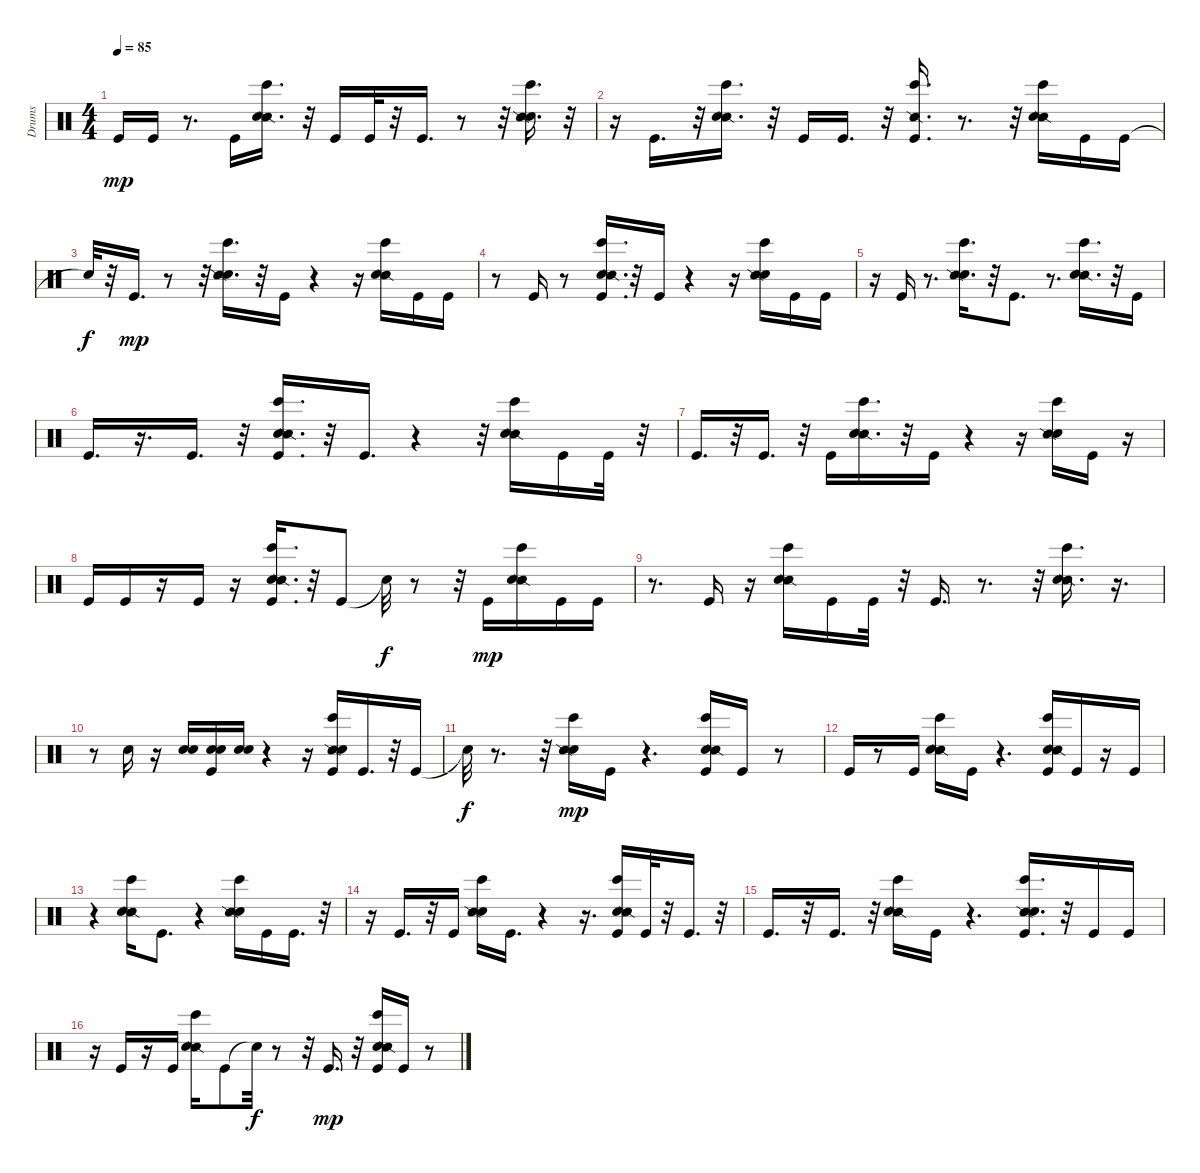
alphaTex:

\track ("Drums" "Drums") {instrument percussion}
\staff {score}
\articulation defaults
\ts (4 4)
\tempo 85
\clef neutral
\ks c "Kick (hit)".16{dy mp} "Kick (hit)".16
r.8{d} "Kick (hit)".16 ("Bongo High (hit)" "Snare (side stick) 2" "Electric Snare (hit)").16{d} r.32 "Kick (hit)".16 "Kick (hit)".32 r.32 "Kick (hit)".16{d} r.8 r.32 ("Bongo High (hit)" "Electric Snare (hit)" "Snare (side stick) 2").16{d} r.32 |
r.16 "Kick (hit)".16{d} r.32 ("Snare (side stick) 2" "Electric Snare (hit)" "Bongo High (hit)").16{d} r.32 "Kick (hit)".16 "Kick (hit)".16{d} r.32 ("Kick (hit)" "Snare (side stick) 2" "Bongo High (hit)").16{d} r.8{d} r.32 ("Bongo High (hit)" "Snare (side stick) 2" "Electric Snare (hit)").16 "Kick (hit)".16 "Kick (hit)".16 |
"Snare (hit)"{t}.32{dy f} r.32 "Kick (hit)".16{d dy mp} r.8 r.32 ("Bongo High (hit)" "Electric Snare (hit)" "Snare (side stick) 2").16{d} r.32 "Kick (hit)".16 r.4 r.16 ("Bongo High (hit)" "Snare (side stick) 2" "Electric Snare (hit)").16 "Kick (hit)".16 "Kick (hit)".16 |
r.8 "Kick (hit)".16 r.8 ("Kick (hit)" "Electric Snare (hit)" "Snare (side stick) 2" "Bongo High (hit)").16{d} r.32 "Kick (hit)".16 r.4 r.16 ("Bongo High (hit)" "Electric Snare (hit)" "Snare (side stick) 2").16 "Kick (hit)".16 "Kick (hit)".16 |
r.16 "Kick (hit)".16 r.8{d} ("Electric Snare (hit)" "Bongo High (hit)" "Snare (side stick) 2").16{d} r.32 "Kick (hit)".8{d} r.8{d} ("Snare (side stick) 2" "Bongo High (hit)" "Electric Snare (hit)").16{d} r.32 "Kick (hit)".16 |
"Kick (hit)".16{d} r.16{d} "Kick (hit)".16{d} r.32 ("Kick (hit)" "Bongo High (hit)" "Electric Snare (hit)" "Snare (side stick) 2").16{d} r.32 "Kick (hit)".16{d} r.4 r.32 ("Snare (side stick) 2" "Electric Snare (hit)" "Bongo High (hit)").16 "Kick (hit)".16 "Kick (hit)".32 r.32 |
"Kick (hit)".16{d} r.32 "Kick (hit)".16{d} r.32 "Kick (hit)".16 ("Snare (side stick) 2" "Bongo High (hit)" "Electric Snare (hit)").16{d} r.32 "Kick (hit)".16 r.4 r.16 ("Electric Snare (hit)" "Snare (side stick) 2" "Bongo High (hit)").16 "Kick (hit)".16 r.16 |
"Kick (hit)".16 "Kick (hit)".16 r.16 "Kick (hit)".16 r.16 ("Bongo High (hit)" "Kick (hit)" "Electric Snare (hit)" "Snare (side stick) 2").16{d} r.32 "Kick (hit)".8 "Snare (hit)"{t}.32{dy f} r.8 r.32 "Kick (hit)".16{dy mp} ("Snare (side stick) 2" "Bongo High (hit)" "Electric Snare (hit)").16 "Kick (hit)".16 "Kick (hit)".16 |
r.8{d} "Kick (hit)".16 r.16 ("Snare (side stick) 2" "Bongo High (hit)" "Electric Snare (hit)").16 "Kick (hit)".16 "Kick (hit)".32 r.32 "Kick (hit)".16{d} r.8{d} r.32 ("Snare (side stick) 2" "Bongo High (hit)" "Electric Snare (hit)").16{d} r.16{d} |
r.8 "Electric Snare (hit)".16 r.16 ("Electric Snare (hit)" "Electric Snare (hit)").16 ("Electric Snare (hit)" "Kick (hit)" "Electric Snare (hit)").16 ("Electric Snare (hit)" "Electric Snare (hit)").16 r.4 r.16 ("Snare (side stick) 2" "Kick (hit)" "Electric Snare (hit)" "Bongo High (hit)").16 "Kick (hit)".16{d} r.32 "Kick (hit)".16 |
"Snare (hit)"{t}.32{dy f} r.8{d} r.32 ("Electric Snare (hit)" "Bongo High (hit)" "Snare (side stick) 2").16{dy mp} "Kick (hit)".16 r.4{d} ("Electric Snare (hit)" "Snare (side stick) 2" "Kick (hit)" "Bongo High (hit)").16 "Kick (hit)".16 r.8 |
"Kick (hit)".16 r.8 "Kick (hit)".16 ("Bongo High (hit)" "Snare (side stick) 2" "Electric Snare (hit)").16 "Kick (hit)".16 r.4{d} ("Electric Snare (hit)" "Bongo High (hit)" "Kick (hit)" "Snare (side stick) 2").16 "Kick (hit)".16 r.16 "Kick (hit)".16 |
r.4 ("Snare (side stick) 2" "Electric Snare (hit)" "Bongo High (hit)").16 "Kick (hit)".8{d} r.4 ("Electric Snare (hit)" "Snare (side stick) 2" "Bongo High (hit)").16 "Kick (hit)".16 "Kick (hit)".16{d} r.32 |
r.16 "Kick (hit)".16{d} r.32 "Kick (hit)".16 ("Electric Snare (hit)" "Bongo High (hit)" "Snare (side stick) 2").16 "Kick (hit)".16{d} r.4 r.16{d} ("Electric Snare (hit)" "Bongo High (hit)" "Snare (side stick) 2" "Kick (hit)").16 "Kick (hit)".32 r.32 "Kick (hit)".16{d} r.32 |
"Kick (hit)".16{d} r.32 "Kick (hit)".16{d} r.32 ("Snare (side stick) 2" "Bongo High (hit)" "Electric Snare (hit)").16 "Kick (hit)".16 r.4{d} ("Kick (hit)" "Snare (side stick) 2" "Electric Snare (hit)" "Bongo High (hit)").16{d} r.32 "Kick (hit)".16 "Kick (hit)".16 |
r.16 "Kick (hit)".16 r.16 "Kick (hit)".16 ("Snare (side stick) 2" "Bongo High (hit)" "Electric Snare (hit)").16 "Kick (hit)".8 "Snare (hit)"{t}.32{dy f} r.8 r.32 "Kick (hit)".16{d dy mp} r.32 ("Bongo High (hit)" "Kick (hit)" "Electric Snare (hit)" "Snare (side stick) 2").16 "Kick (hit)".16 r.8
